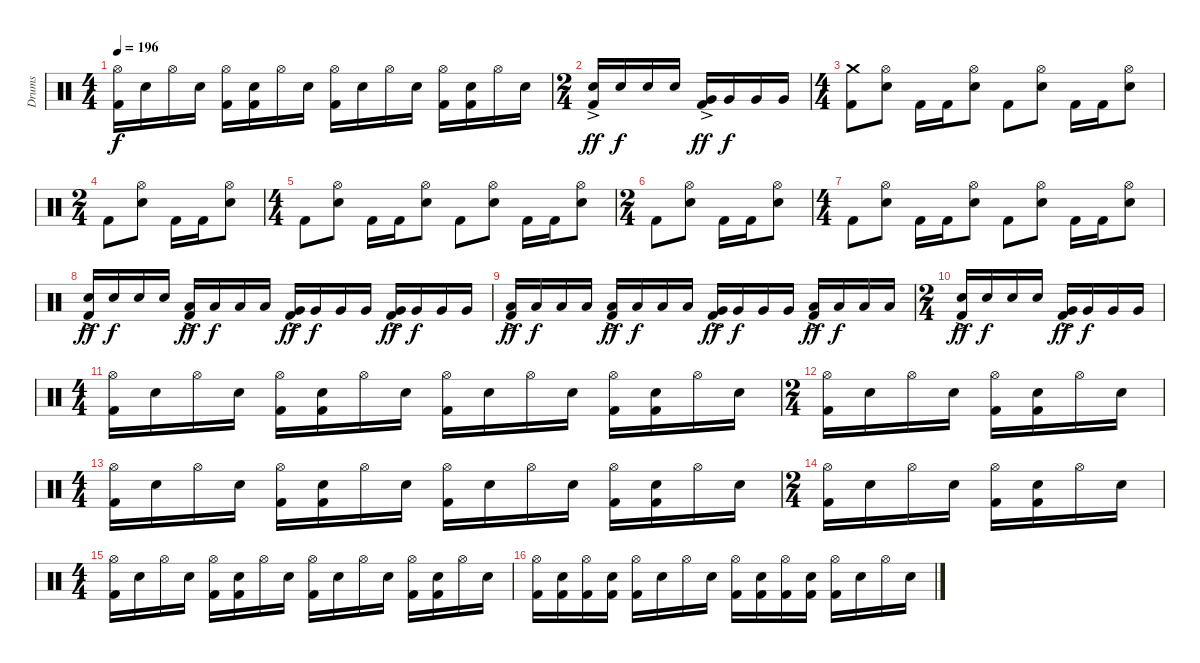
\track ("Drums" "Drums") {instrument percussion}
\staff {score}
\articulation defaults
\ts (4 4)
\tempo 196
\clef neutral
\ks c
("Hi-Hat (open)" "Kick (hit) 2").16{dy f} "Electric Snare (hit)".16 "Hi-Hat (open)".16 "Electric Snare (hit)".16 ("Hi-Hat (open)" "Kick (hit) 2").16 ("Electric Snare (hit)" "Kick (hit) 2").16 "Hi-Hat (open)".16 "Electric Snare (hit)".16 ("Hi-Hat (open)" "Kick (hit) 2").16 "Electric Snare (hit)".16 "Hi-Hat (open)".16 "Electric Snare (hit)".16 ("Hi-Hat (open)" "Kick (hit) 2").16 ("Electric Snare (hit)" "Kick (hit) 2").16 "Hi-Hat (open)".16 "Electric Snare (hit)".16 |
\ts (2 4)
("Electric Snare (hit)"{ac} "Kick (hit) 2").16{dy ff} "Electric Snare (hit)".16{dy f} "Electric Snare (hit)".16 "Electric Snare (hit)".16 ("Very Low Tom (hit)"{ac} "Kick (hit) 2").16{dy ff} "Very Low Tom (hit)".16{dy f} "Very Low Tom (hit)".16 "Very Low Tom (hit)".16 |
\ts (4 4)
("Crash medium (hit)" "Kick (hit) 2").8 ("Hi-Hat (open)" "Electric Snare (hit)").8 "Kick (hit) 2".16 "Kick (hit) 2".16 ("Hi-Hat (open)" "Electric Snare (hit)").8 "Kick (hit) 2".8 ("Hi-Hat (open)" "Electric Snare (hit)").8 "Kick (hit) 2".16 "Kick (hit) 2".16 ("Hi-Hat (open)" "Electric Snare (hit)").8 |
\ts (2 4)
"Kick (hit) 2".8 ("Hi-Hat (open)" "Electric Snare (hit)").8 "Kick (hit) 2".16 "Kick (hit) 2".16 ("Hi-Hat (open)" "Electric Snare (hit)").8 |
\ts (4 4)
"Kick (hit) 2".8 ("Hi-Hat (open)" "Electric Snare (hit)").8 "Kick (hit) 2".16 "Kick (hit) 2".16 ("Hi-Hat (open)" "Electric Snare (hit)").8 "Kick (hit) 2".8 ("Hi-Hat (open)" "Electric Snare (hit)").8 "Kick (hit) 2".16 "Kick (hit) 2".16 ("Hi-Hat (open)" "Electric Snare (hit)").8 |
\ts (2 4)
"Kick (hit) 2".8 ("Hi-Hat (open)" "Electric Snare (hit)").8 "Kick (hit) 2".16 "Kick (hit) 2".16 ("Hi-Hat (open)" "Electric Snare (hit)").8 |
\ts (4 4)
"Kick (hit) 2".8 ("Hi-Hat (open)" "Electric Snare (hit)").8 "Kick (hit) 2".16 "Kick (hit) 2".16 ("Hi-Hat (open)" "Electric Snare (hit)").8 "Kick (hit) 2".8 ("Hi-Hat (open)" "Electric Snare (hit)").8 "Kick (hit) 2".16 "Kick (hit) 2".16 ("Hi-Hat (open)" "Electric Snare (hit)").8 |
("Electric Snare (hit)"{ac} "Kick (hit) 2").16{dy ff} "Electric Snare (hit)".16{dy f} "Electric Snare (hit)".16 "Electric Snare (hit)".16 ("Low Tom (hit)"{ac} "Kick (hit) 2").16{dy ff} "Low Tom (hit)".16{dy f} "Low Tom (hit)".16 "Low Tom (hit)".16 ("Very Low Tom (hit)"{ac} "Kick (hit) 2").16{dy ff} "Very Low Tom (hit)".16{dy f} "Very Low Tom (hit)".16 "Very Low Tom (hit)".16 ("Very Low Tom (hit)"{ac} "Kick (hit) 2").16{dy ff} "Very Low Tom (hit)".16{dy f} "Very Low Tom (hit)".16 "Very Low Tom (hit)".16 |
("Low Floor Tom (hit)"{ac} "Kick (hit) 2").16{dy ff} "Low Floor Tom (hit)".16{dy f} "Low Floor Tom (hit)".16 "Low Floor Tom (hit)".16 ("Low Tom (hit)"{ac} "Kick (hit) 2").16{dy ff} "Low Tom (hit)".16{dy f} "Low Tom (hit)".16 "Low Tom (hit)".16 ("Very Low Tom (hit)"{ac} "Kick (hit) 2").16{dy ff} "Very Low Tom (hit)".16{dy f} "Very Low Tom (hit)".16 "Very Low Tom (hit)".16 ("Low Floor Tom (hit)"{ac} "Kick (hit) 2").16{dy ff} "Low Floor Tom (hit)".16{dy f} "Low Floor Tom (hit)".16 "Low Floor Tom (hit)".16 |
\ts (2 4)
("Electric Snare (hit)"{ac} "Kick (hit) 2").16{dy ff} "Electric Snare (hit)".16{dy f} "Electric Snare (hit)".16 "Electric Snare (hit)".16 ("Very Low Tom (hit)"{ac} "Kick (hit) 2").16{dy ff} "Very Low Tom (hit)".16{dy f} "Very Low Tom (hit)".16 "Very Low Tom (hit)".16 |
\ts (4 4)
("Hi-Hat (open)" "Kick (hit) 2").16 "Electric Snare (hit)".16 "Hi-Hat (open)".16 "Electric Snare (hit)".16 ("Hi-Hat (open)" "Kick (hit) 2").16 ("Electric Snare (hit)" "Kick (hit) 2").16 "Hi-Hat (open)".16 "Electric Snare (hit)".16 ("Hi-Hat (open)" "Kick (hit) 2").16 "Electric Snare (hit)".16 "Hi-Hat (open)".16 "Electric Snare (hit)".16 ("Hi-Hat (open)" "Kick (hit) 2").16 ("Electric Snare (hit)" "Kick (hit) 2").16 "Hi-Hat (open)".16 "Electric Snare (hit)".16 |
\ts (2 4)
("Hi-Hat (open)" "Kick (hit) 2").16 "Electric Snare (hit)".16 "Hi-Hat (open)".16 "Electric Snare (hit)".16 ("Hi-Hat (open)" "Kick (hit) 2").16 ("Electric Snare (hit)" "Kick (hit) 2").16 "Hi-Hat (open)".16 "Electric Snare (hit)".16 |
\ts (4 4)
("Hi-Hat (open)" "Kick (hit) 2").16 "Electric Snare (hit)".16 "Hi-Hat (open)".16 "Electric Snare (hit)".16 ("Hi-Hat (open)" "Kick (hit) 2").16 ("Electric Snare (hit)" "Kick (hit) 2").16 "Hi-Hat (open)".16 "Electric Snare (hit)".16 ("Hi-Hat (open)" "Kick (hit) 2").16 "Electric Snare (hit)".16 "Hi-Hat (open)".16 "Electric Snare (hit)".16 ("Hi-Hat (open)" "Kick (hit) 2").16 ("Electric Snare (hit)" "Kick (hit) 2").16 "Hi-Hat (open)".16 "Electric Snare (hit)".16 |
\ts (2 4)
("Hi-Hat (open)" "Kick (hit) 2").16 "Electric Snare (hit)".16 "Hi-Hat (open)".16 "Electric Snare (hit)".16 ("Hi-Hat (open)" "Kick (hit) 2").16 ("Electric Snare (hit)" "Kick (hit) 2").16 "Hi-Hat (open)".16 "Electric Snare (hit)".16 |
\ts (4 4)
("Hi-Hat (open)" "Kick (hit) 2").16 "Electric Snare (hit)".16 "Hi-Hat (open)".16 "Electric Snare (hit)".16 ("Hi-Hat (open)" "Kick (hit) 2").16 ("Electric Snare (hit)" "Kick (hit) 2").16 "Hi-Hat (open)".16 "Electric Snare (hit)".16 ("Hi-Hat (open)" "Kick (hit) 2").16 "Electric Snare (hit)".16 "Hi-Hat (open)".16 "Electric Snare (hit)".16 ("Hi-Hat (open)" "Kick (hit) 2").16 ("Electric Snare (hit)" "Kick (hit) 2").16 "Hi-Hat (open)".16 "Electric Snare (hit)".16 |
("Hi-Hat (open)" "Kick (hit) 2").16 ("Electric Snare (hit)" "Kick (hit) 2").16 ("Hi-Hat (open)" "Kick (hit) 2").16 ("Electric Snare (hit)" "Kick (hit) 2").16 ("Hi-Hat (open)" "Kick (hit) 2").16 "Electric Snare (hit)".16 "Hi-Hat (open)".16 "Electric Snare (hit)".16 ("Hi-Hat (open)" "Kick (hit) 2").16 ("Electric Snare (hit)" "Kick (hit) 2").16 ("Hi-Hat (open)" "Kick (hit) 2").16 ("Electric Snare (hit)" "Kick (hit) 2").16 ("Hi-Hat (open)" "Kick (hit) 2").16 "Electric Snare (hit)".16 "Hi-Hat (open)".16 "Electric Snare (hit)".16
